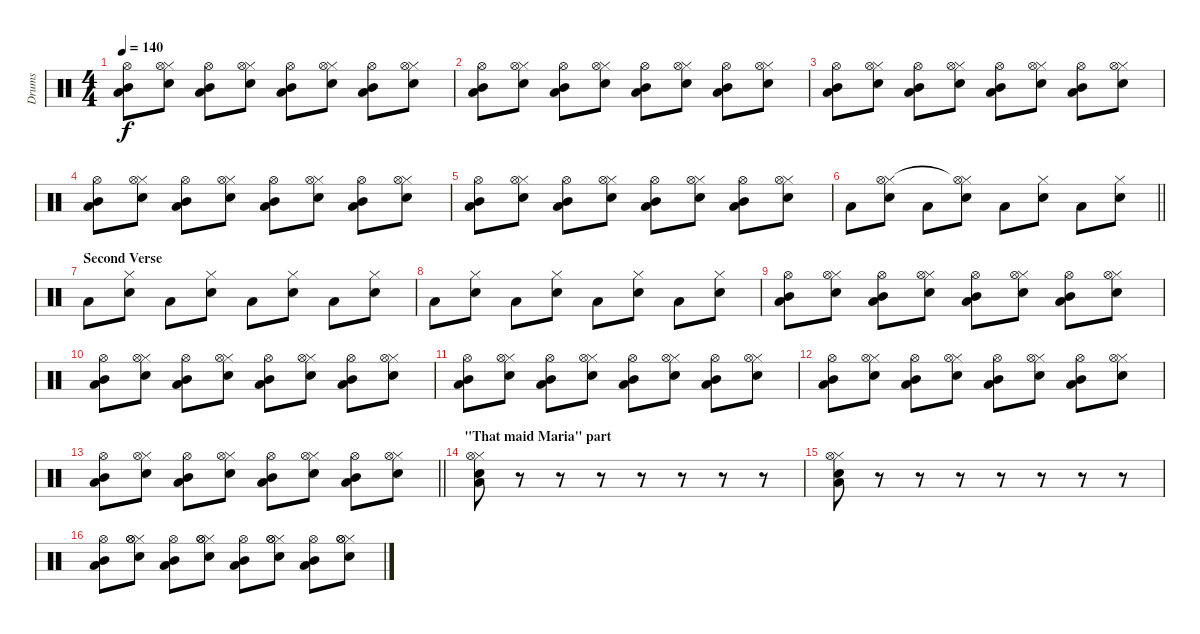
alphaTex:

\track ("Drums" "Drums") {instrument percussion}
\staff {score}
\articulation defaults
\ts (4 4)
\tempo 140
\clef neutral
\ks c
("Mid Tom (hit)" "Hi-Hat (open)" "Low Tom (hit)").8{dy f} ("Hi-Hat (closed)" "Hi-Hat (open)" "Electric Snare (hit)").8 ("Mid Tom (hit)" "Hi-Hat (open)" "Low Tom (hit)").8 ("Hi-Hat (closed)" "Hi-Hat (open)" "Electric Snare (hit)").8 ("Mid Tom (hit)" "Hi-Hat (open)" "Low Tom (hit)").8 ("Hi-Hat (closed)" "Hi-Hat (open)" "Electric Snare (hit)").8 ("Mid Tom (hit)" "Hi-Hat (open)" "Low Tom (hit)").8 ("Hi-Hat (closed)" "Hi-Hat (open)" "Electric Snare (hit)").8 |
("Mid Tom (hit)" "Hi-Hat (open)" "Low Tom (hit)").8 ("Hi-Hat (closed)" "Hi-Hat (open)" "Electric Snare (hit)").8 ("Mid Tom (hit)" "Hi-Hat (open)" "Low Tom (hit)").8 ("Hi-Hat (closed)" "Hi-Hat (open)" "Electric Snare (hit)").8 ("Mid Tom (hit)" "Hi-Hat (open)" "Low Tom (hit)").8 ("Hi-Hat (closed)" "Hi-Hat (open)" "Electric Snare (hit)").8 ("Mid Tom (hit)" "Hi-Hat (open)" "Low Tom (hit)").8 ("Hi-Hat (closed)" "Hi-Hat (open)" "Electric Snare (hit)").8 |
("Mid Tom (hit)" "Hi-Hat (open)" "Low Tom (hit)").8 ("Hi-Hat (closed)" "Hi-Hat (open)" "Electric Snare (hit)").8 ("Mid Tom (hit)" "Hi-Hat (open)" "Low Tom (hit)").8 ("Hi-Hat (closed)" "Hi-Hat (open)" "Electric Snare (hit)").8 ("Mid Tom (hit)" "Hi-Hat (open)" "Low Tom (hit)").8 ("Hi-Hat (closed)" "Hi-Hat (open)" "Electric Snare (hit)").8 ("Mid Tom (hit)" "Hi-Hat (open)" "Low Tom (hit)").8 ("Hi-Hat (closed)" "Hi-Hat (open)" "Electric Snare (hit)").8 |
("Mid Tom (hit)" "Hi-Hat (open)" "Low Tom (hit)").8 ("Hi-Hat (closed)" "Hi-Hat (open)" "Electric Snare (hit)").8 ("Mid Tom (hit)" "Hi-Hat (open)" "Low Tom (hit)").8 ("Hi-Hat (closed)" "Hi-Hat (open)" "Electric Snare (hit)").8 ("Mid Tom (hit)" "Hi-Hat (open)" "Low Tom (hit)").8 ("Hi-Hat (closed)" "Hi-Hat (open)" "Electric Snare (hit)").8 ("Mid Tom (hit)" "Hi-Hat (open)" "Low Tom (hit)").8 ("Hi-Hat (closed)" "Hi-Hat (open)" "Electric Snare (hit)").8 |
("Mid Tom (hit)" "Hi-Hat (open)" "Low Tom (hit)").8 ("Hi-Hat (closed)" "Hi-Hat (open)" "Electric Snare (hit)").8 ("Mid Tom (hit)" "Hi-Hat (open)" "Low Tom (hit)").8 ("Hi-Hat (closed)" "Hi-Hat (open)" "Electric Snare (hit)").8 ("Mid Tom (hit)" "Hi-Hat (open)" "Low Tom (hit)").8 ("Hi-Hat (closed)" "Hi-Hat (open)" "Electric Snare (hit)").8 ("Mid Tom (hit)" "Hi-Hat (open)" "Low Tom (hit)").8 ("Hi-Hat (closed)" "Hi-Hat (open)" "Electric Snare (hit)").8 |
\barLineRight lightlight "Low Tom (hit)".8
("Hi-Hat (closed)" "Hi-Hat (open)" "Electric Snare (hit)").8 "Low Tom (hit)".8 ("Hi-Hat (closed)" "Hi-Hat (open)"{t} "Electric Snare (hit)").8 "Low Tom (hit)".8 ("Hi-Hat (closed)" "Electric Snare (hit)").8 "Low Tom (hit)".8 ("Hi-Hat (closed)" "Electric Snare (hit)").8 |
\section ("" "Second Verse")
"Low Tom (hit)".8 ("Hi-Hat (closed)" "Electric Snare (hit)").8 "Low Tom (hit)".8 ("Hi-Hat (closed)" "Electric Snare (hit)").8 "Low Tom (hit)".8 ("Hi-Hat (closed)" "Electric Snare (hit)").8 "Low Tom (hit)".8 ("Hi-Hat (closed)" "Electric Snare (hit)").8 |
"Low Tom (hit)".8 ("Hi-Hat (closed)" "Electric Snare (hit)").8 "Low Tom (hit)".8 ("Hi-Hat (closed)" "Electric Snare (hit)").8 "Low Tom (hit)".8 ("Hi-Hat (closed)" "Electric Snare (hit)").8 "Low Tom (hit)".8 ("Hi-Hat (closed)" "Electric Snare (hit)").8 |
("Mid Tom (hit)" "Hi-Hat (open)" "Low Tom (hit)").8 ("Hi-Hat (closed)" "Hi-Hat (open)" "Electric Snare (hit)").8 ("Mid Tom (hit)" "Hi-Hat (open)" "Low Tom (hit)").8 ("Hi-Hat (closed)" "Hi-Hat (open)" "Electric Snare (hit)").8 ("Mid Tom (hit)" "Hi-Hat (open)" "Low Tom (hit)").8 ("Hi-Hat (closed)" "Hi-Hat (open)" "Electric Snare (hit)").8 ("Mid Tom (hit)" "Hi-Hat (open)" "Low Tom (hit)").8 ("Hi-Hat (closed)" "Hi-Hat (open)" "Electric Snare (hit)").8 |
("Mid Tom (hit)" "Hi-Hat (open)" "Low Tom (hit)").8 ("Hi-Hat (closed)" "Hi-Hat (open)" "Electric Snare (hit)").8 ("Mid Tom (hit)" "Hi-Hat (open)" "Low Tom (hit)").8 ("Hi-Hat (closed)" "Hi-Hat (open)" "Electric Snare (hit)").8 ("Mid Tom (hit)" "Hi-Hat (open)" "Low Tom (hit)").8 ("Hi-Hat (closed)" "Hi-Hat (open)" "Electric Snare (hit)").8 ("Mid Tom (hit)" "Hi-Hat (open)" "Low Tom (hit)").8 ("Hi-Hat (closed)" "Hi-Hat (open)" "Electric Snare (hit)").8 |
("Mid Tom (hit)" "Hi-Hat (open)" "Low Tom (hit)").8 ("Hi-Hat (closed)" "Hi-Hat (open)" "Electric Snare (hit)").8 ("Mid Tom (hit)" "Hi-Hat (open)" "Low Tom (hit)").8 ("Hi-Hat (closed)" "Hi-Hat (open)" "Electric Snare (hit)").8 ("Mid Tom (hit)" "Hi-Hat (open)" "Low Tom (hit)").8 ("Hi-Hat (closed)" "Hi-Hat (open)" "Electric Snare (hit)").8 ("Mid Tom (hit)" "Hi-Hat (open)" "Low Tom (hit)").8 ("Hi-Hat (closed)" "Hi-Hat (open)" "Electric Snare (hit)").8 |
("Mid Tom (hit)" "Hi-Hat (open)" "Low Tom (hit)").8 ("Hi-Hat (closed)" "Hi-Hat (open)" "Electric Snare (hit)").8 ("Mid Tom (hit)" "Hi-Hat (open)" "Low Tom (hit)").8 ("Hi-Hat (closed)" "Hi-Hat (open)" "Electric Snare (hit)").8 ("Mid Tom (hit)" "Hi-Hat (open)" "Low Tom (hit)").8 ("Hi-Hat (closed)" "Hi-Hat (open)" "Electric Snare (hit)").8 ("Mid Tom (hit)" "Hi-Hat (open)" "Low Tom (hit)").8 ("Hi-Hat (closed)" "Hi-Hat (open)" "Electric Snare (hit)").8 |
\barLineRight lightlight
("Mid Tom (hit)" "Hi-Hat (open)" "Low Tom (hit)").8 ("Hi-Hat (closed)" "Hi-Hat (open)" "Electric Snare (hit)").8 ("Mid Tom (hit)" "Hi-Hat (open)" "Low Tom (hit)").8 ("Hi-Hat (closed)" "Hi-Hat (open)" "Electric Snare (hit)").8 ("Mid Tom (hit)" "Hi-Hat (open)" "Low Tom (hit)").8 ("Hi-Hat (closed)" "Hi-Hat (open)" "Electric Snare (hit)").8 ("Mid Tom (hit)" "Hi-Hat (open)" "Low Tom (hit)").8 ("Hi-Hat (closed)" "Hi-Hat (open)" "Electric Snare (hit)").8 |
\section ("" "\"That maid Maria\" part")
("Hi-Hat (closed)" "Hi-Hat (open)" "Low Tom (hit)" "Electric Snare (hit)").8 r.8 r.8 r.8 r.8 r.8 r.8 r.8 |
("Hi-Hat (closed)" "Hi-Hat (open)" "Low Tom (hit)" "Electric Snare (hit)").8 r.8 r.8 r.8 r.8 r.8 r.8 r.8 |
("Mid Tom (hit)" "Hi-Hat (open)" "Low Tom (hit)").8 ("Hi-Hat (closed)" "Hi-Hat (open)" "Hi-Hat (open)" "Electric Snare (hit)").8 ("Mid Tom (hit)" "Hi-Hat (open)" "Low Tom (hit)").8 ("Hi-Hat (closed)" "Hi-Hat (open)" "Hi-Hat (open)" "Electric Snare (hit)").8 ("Mid Tom (hit)" "Hi-Hat (open)" "Low Tom (hit)").8 ("Hi-Hat (closed)" "Hi-Hat (open)" "Hi-Hat (open)" "Electric Snare (hit)").8 ("Mid Tom (hit)" "Hi-Hat (open)" "Low Tom (hit)").8 ("Hi-Hat (closed)" "Hi-Hat (open)" "Hi-Hat (open)" "Electric Snare (hit)").8
